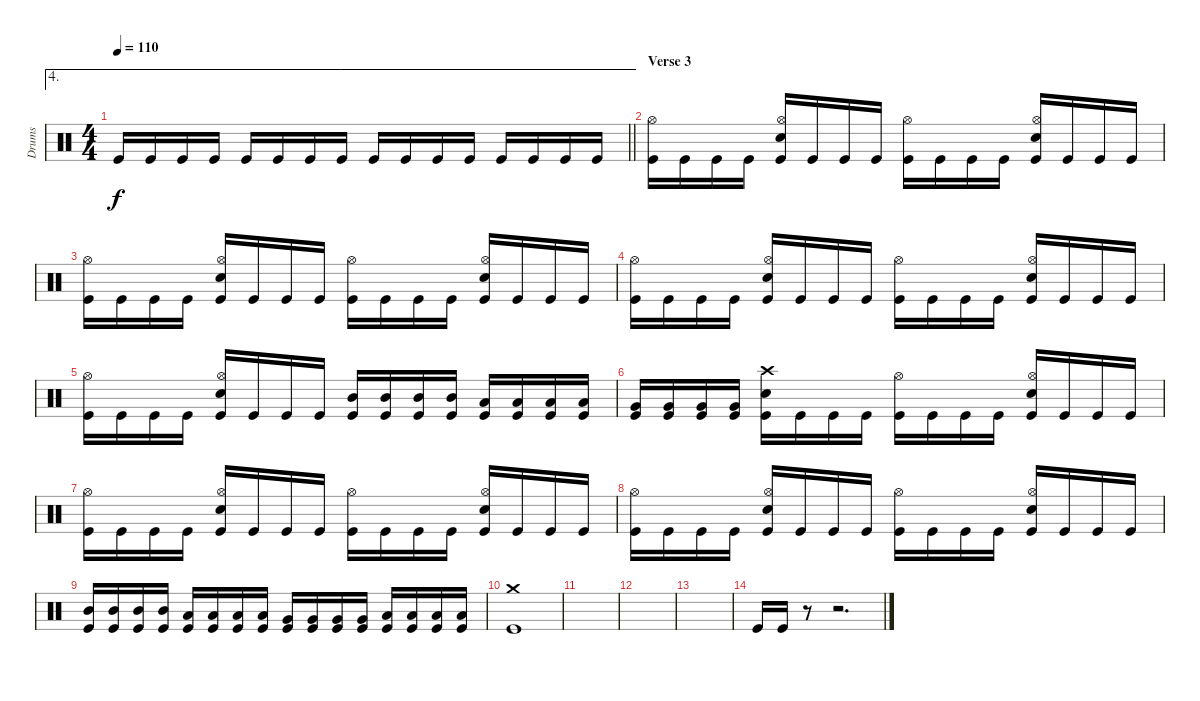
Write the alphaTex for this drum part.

\track ("Drums" "Drums") {instrument percussion}
\staff {score}
\articulation defaults
\ae 4
\ts (4 4)
\tempo 110
\clef neutral
\barLineRight lightlight
\ks c "Kick (hit)".16{dy f} "Kick (hit)".16 "Kick (hit)".16 "Kick (hit)".16 "Kick (hit)".16 "Kick (hit)".16 "Kick (hit)".16 "Kick (hit)".16 "Kick (hit)".16 "Kick (hit)".16 "Kick (hit)".16 "Kick (hit)".16 "Kick (hit)".16 "Kick (hit)".16 "Kick (hit)".16 "Kick (hit)".16
|
\section ("" "Verse 3")
("Hi-Hat (open)" "Kick (hit)").16 "Kick (hit)".16 "Kick (hit)".16 "Kick (hit)".16 ("Hi-Hat (open)" "Snare (hit) 2" "Kick (hit)").16 "Kick (hit)".16 "Kick (hit)".16 "Kick (hit)".16 ("Hi-Hat (open)" "Kick (hit)").16 "Kick (hit)".16 "Kick (hit)".16 "Kick (hit)".16 ("Hi-Hat (open)" "Snare (hit) 2" "Kick (hit)").16 "Kick (hit)".16 "Kick (hit)".16 "Kick (hit)".16 |
("Hi-Hat (open)" "Kick (hit)").16 "Kick (hit)".16 "Kick (hit)".16 "Kick (hit)".16 ("Hi-Hat (open)" "Snare (hit) 2" "Kick (hit)").16 "Kick (hit)".16 "Kick (hit)".16 "Kick (hit)".16 ("Hi-Hat (open)" "Kick (hit)").16 "Kick (hit)".16 "Kick (hit)".16 "Kick (hit)".16 ("Hi-Hat (open)" "Snare (hit) 2" "Kick (hit)").16 "Kick (hit)".16 "Kick (hit)".16 "Kick (hit)".16 |
("Hi-Hat (open)" "Kick (hit)").16 "Kick (hit)".16 "Kick (hit)".16 "Kick (hit)".16 ("Hi-Hat (open)" "Snare (hit) 2" "Kick (hit)").16 "Kick (hit)".16 "Kick (hit)".16 "Kick (hit)".16 ("Hi-Hat (open)" "Kick (hit)").16 "Kick (hit)".16 "Kick (hit)".16 "Kick (hit)".16 ("Hi-Hat (open)" "Snare (hit) 2" "Kick (hit)").16 "Kick (hit)".16 "Kick (hit)".16 "Kick (hit)".16 |
("Hi-Hat (open)" "Kick (hit)").16 "Kick (hit)".16 "Kick (hit)".16 "Kick (hit)".16 ("Hi-Hat (open)" "Snare (hit) 2" "Kick (hit)").16 "Kick (hit)".16 "Kick (hit)".16 "Kick (hit)".16 ("Mid Tom (hit)" "Kick (hit)").16 ("Mid Tom (hit)" "Kick (hit)").16 ("Mid Tom (hit)" "Kick (hit)").16 ("Mid Tom (hit)" "Kick (hit)").16 ("Low Tom (hit)" "Kick (hit)").16 ("Low Tom (hit)" "Kick (hit)").16 ("Low Tom (hit)" "Kick (hit)").16 ("Low Tom (hit)" "Kick (hit)").16 |
("Very Low Tom (hit)" "Kick (hit)").16 ("Very Low Tom (hit)" "Kick (hit)").16 ("Very Low Tom (hit)" "Kick (hit)").16 ("Very Low Tom (hit)" "Kick (hit)").16 ("Crash high (hit)" "Snare (hit) 2" "Kick (hit)").16 "Kick (hit)".16 "Kick (hit)".16 "Kick (hit)".16 ("Hi-Hat (open)" "Kick (hit)").16 "Kick (hit)".16 "Kick (hit)".16 "Kick (hit)".16 ("Hi-Hat (open)" "Snare (hit) 2" "Kick (hit)").16 "Kick (hit)".16 "Kick (hit)".16 "Kick (hit)".16 |
("Hi-Hat (open)" "Kick (hit)").16 "Kick (hit)".16 "Kick (hit)".16 "Kick (hit)".16 ("Hi-Hat (open)" "Snare (hit) 2" "Kick (hit)").16 "Kick (hit)".16 "Kick (hit)".16 "Kick (hit)".16 ("Hi-Hat (open)" "Kick (hit)").16 "Kick (hit)".16 "Kick (hit)".16 "Kick (hit)".16 ("Hi-Hat (open)" "Snare (hit) 2" "Kick (hit)").16 "Kick (hit)".16 "Kick (hit)".16 "Kick (hit)".16 |
("Hi-Hat (open)" "Kick (hit)").16 "Kick (hit)".16 "Kick (hit)".16 "Kick (hit)".16 ("Hi-Hat (open)" "Snare (hit) 2" "Kick (hit)").16 "Kick (hit)".16 "Kick (hit)".16 "Kick (hit)".16 ("Hi-Hat (open)" "Kick (hit)").16 "Kick (hit)".16 "Kick (hit)".16 "Kick (hit)".16 ("Hi-Hat (open)" "Snare (hit) 2" "Kick (hit)").16 "Kick (hit)".16 "Kick (hit)".16 "Kick (hit)".16 |
("Mid Tom (hit)" "Kick (hit)").16 ("Mid Tom (hit)" "Kick (hit)").16 ("Mid Tom (hit)" "Kick (hit)").16 ("Mid Tom (hit)" "Kick (hit)").16 ("Low Tom (hit)" "Kick (hit)").16 ("Low Tom (hit)" "Kick (hit)").16 ("Low Tom (hit)" "Kick (hit)").16 ("Low Tom (hit)" "Kick (hit)").16 ("Very Low Tom (hit)" "Kick (hit)").16 ("Very Low Tom (hit)" "Kick (hit)").16 ("Very Low Tom (hit)" "Kick (hit)").16 ("Very Low Tom (hit)" "Kick (hit)").16 ("Low Floor Tom (hit)" "Kick (hit)").16 ("Low Floor Tom (hit)" "Kick (hit)").16 ("Low Floor Tom (hit)" "Kick (hit)").16 ("Low Floor Tom (hit)" "Kick (hit)").16 |
("Crash medium (hit)" "Kick (hit)").1 |
|
|
|
"Kick (hit)".16 "Kick (hit)".16 r.8 r.2{d}
